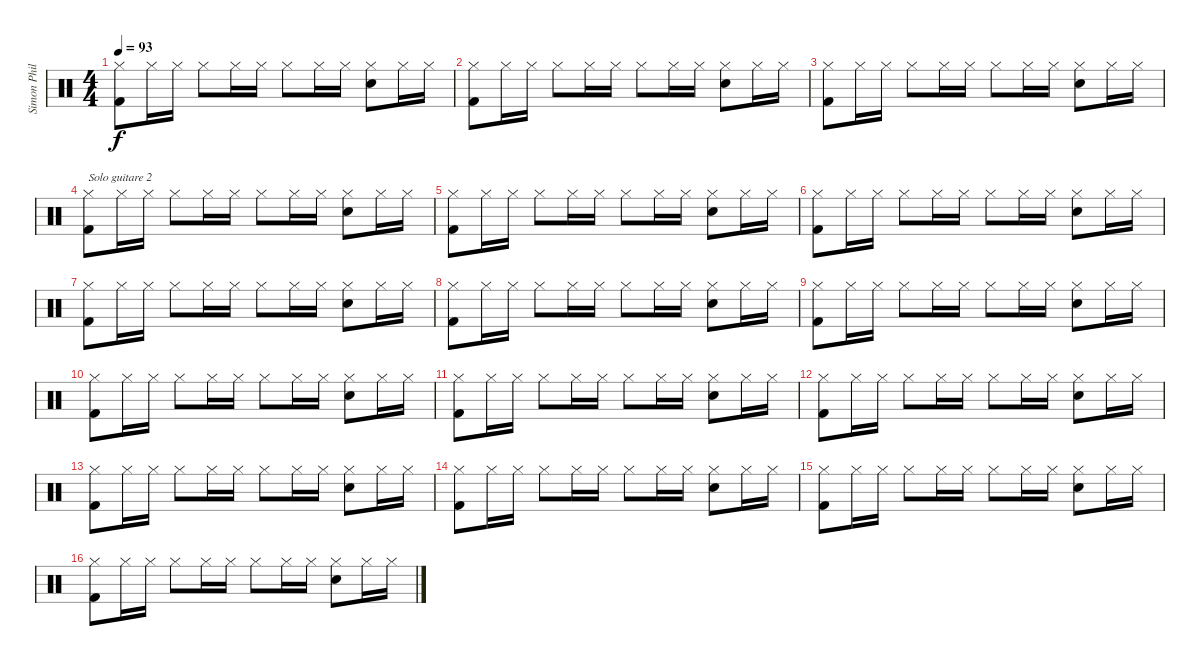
\track ("Simon Phillips" "Simon Phil") {instrument percussion}
\staff {score}
\articulation defaults
\ts (4 4)
\tempo 93
\clef neutral
\ks c
("Hi-Hat (closed)" "Kick (hit) 2").8{dy f} "Hi-Hat (closed)".16 "Hi-Hat (closed)".16 "Hi-Hat (closed)".8 "Hi-Hat (closed)".16 "Hi-Hat (closed)".16 "Hi-Hat (closed)".8 "Hi-Hat (closed)".16 "Hi-Hat (closed)".16 ("Electric Snare (hit)" "Hi-Hat (closed)").8 "Hi-Hat (closed)".16 "Hi-Hat (closed)".16 |
("Hi-Hat (closed)" "Kick (hit) 2").8 "Hi-Hat (closed)".16 "Hi-Hat (closed)".16 "Hi-Hat (closed)".8 "Hi-Hat (closed)".16 "Hi-Hat (closed)".16 "Hi-Hat (closed)".8 "Hi-Hat (closed)".16 "Hi-Hat (closed)".16 ("Electric Snare (hit)" "Hi-Hat (closed)").8 "Hi-Hat (closed)".16 "Hi-Hat (closed)".16 |
("Hi-Hat (closed)" "Kick (hit) 2").8 "Hi-Hat (closed)".16 "Hi-Hat (closed)".16 "Hi-Hat (closed)".8 "Hi-Hat (closed)".16 "Hi-Hat (closed)".16 "Hi-Hat (closed)".8 "Hi-Hat (closed)".16 "Hi-Hat (closed)".16 ("Electric Snare (hit)" "Hi-Hat (closed)").8 "Hi-Hat (closed)".16 "Hi-Hat (closed)".16 |
("Hi-Hat (closed)" "Kick (hit) 2").8{txt "Solo guitare 2"} "Hi-Hat (closed)".16 "Hi-Hat (closed)".16 "Hi-Hat (closed)".8 "Hi-Hat (closed)".16 "Hi-Hat (closed)".16 "Hi-Hat (closed)".8 "Hi-Hat (closed)".16 "Hi-Hat (closed)".16 ("Electric Snare (hit)" "Hi-Hat (closed)").8 "Hi-Hat (closed)".16 "Hi-Hat (closed)".16 |
("Hi-Hat (closed)" "Kick (hit) 2").8 "Hi-Hat (closed)".16 "Hi-Hat (closed)".16 "Hi-Hat (closed)".8 "Hi-Hat (closed)".16 "Hi-Hat (closed)".16 "Hi-Hat (closed)".8 "Hi-Hat (closed)".16 "Hi-Hat (closed)".16 ("Electric Snare (hit)" "Hi-Hat (closed)").8 "Hi-Hat (closed)".16 "Hi-Hat (closed)".16 |
("Hi-Hat (closed)" "Kick (hit) 2").8 "Hi-Hat (closed)".16 "Hi-Hat (closed)".16 "Hi-Hat (closed)".8 "Hi-Hat (closed)".16 "Hi-Hat (closed)".16 "Hi-Hat (closed)".8 "Hi-Hat (closed)".16 "Hi-Hat (closed)".16 ("Electric Snare (hit)" "Hi-Hat (closed)").8 "Hi-Hat (closed)".16 "Hi-Hat (closed)".16 |
("Hi-Hat (closed)" "Kick (hit) 2").8 "Hi-Hat (closed)".16 "Hi-Hat (closed)".16 "Hi-Hat (closed)".8 "Hi-Hat (closed)".16 "Hi-Hat (closed)".16 "Hi-Hat (closed)".8 "Hi-Hat (closed)".16 "Hi-Hat (closed)".16 ("Electric Snare (hit)" "Hi-Hat (closed)").8 "Hi-Hat (closed)".16 "Hi-Hat (closed)".16 |
("Hi-Hat (closed)" "Kick (hit) 2").8 "Hi-Hat (closed)".16 "Hi-Hat (closed)".16 "Hi-Hat (closed)".8 "Hi-Hat (closed)".16 "Hi-Hat (closed)".16 "Hi-Hat (closed)".8 "Hi-Hat (closed)".16 "Hi-Hat (closed)".16 ("Electric Snare (hit)" "Hi-Hat (closed)").8 "Hi-Hat (closed)".16 "Hi-Hat (closed)".16 |
("Hi-Hat (closed)" "Kick (hit) 2").8 "Hi-Hat (closed)".16 "Hi-Hat (closed)".16 "Hi-Hat (closed)".8 "Hi-Hat (closed)".16 "Hi-Hat (closed)".16 "Hi-Hat (closed)".8 "Hi-Hat (closed)".16 "Hi-Hat (closed)".16 ("Electric Snare (hit)" "Hi-Hat (closed)").8 "Hi-Hat (closed)".16 "Hi-Hat (closed)".16 |
("Hi-Hat (closed)" "Kick (hit) 2").8 "Hi-Hat (closed)".16 "Hi-Hat (closed)".16 "Hi-Hat (closed)".8 "Hi-Hat (closed)".16 "Hi-Hat (closed)".16 "Hi-Hat (closed)".8 "Hi-Hat (closed)".16 "Hi-Hat (closed)".16 ("Electric Snare (hit)" "Hi-Hat (closed)").8 "Hi-Hat (closed)".16 "Hi-Hat (closed)".16 |
("Hi-Hat (closed)" "Kick (hit) 2").8 "Hi-Hat (closed)".16 "Hi-Hat (closed)".16 "Hi-Hat (closed)".8 "Hi-Hat (closed)".16 "Hi-Hat (closed)".16 "Hi-Hat (closed)".8 "Hi-Hat (closed)".16 "Hi-Hat (closed)".16 ("Electric Snare (hit)" "Hi-Hat (closed)").8 "Hi-Hat (closed)".16 "Hi-Hat (closed)".16 |
("Hi-Hat (closed)" "Kick (hit) 2").8 "Hi-Hat (closed)".16 "Hi-Hat (closed)".16 "Hi-Hat (closed)".8 "Hi-Hat (closed)".16 "Hi-Hat (closed)".16 "Hi-Hat (closed)".8 "Hi-Hat (closed)".16 "Hi-Hat (closed)".16 ("Electric Snare (hit)" "Hi-Hat (closed)").8 "Hi-Hat (closed)".16 "Hi-Hat (closed)".16 |
("Hi-Hat (closed)" "Kick (hit) 2").8 "Hi-Hat (closed)".16 "Hi-Hat (closed)".16 "Hi-Hat (closed)".8 "Hi-Hat (closed)".16 "Hi-Hat (closed)".16 "Hi-Hat (closed)".8 "Hi-Hat (closed)".16 "Hi-Hat (closed)".16 ("Electric Snare (hit)" "Hi-Hat (closed)").8 "Hi-Hat (closed)".16 "Hi-Hat (closed)".16 |
("Hi-Hat (closed)" "Kick (hit) 2").8 "Hi-Hat (closed)".16 "Hi-Hat (closed)".16 "Hi-Hat (closed)".8 "Hi-Hat (closed)".16 "Hi-Hat (closed)".16 "Hi-Hat (closed)".8 "Hi-Hat (closed)".16 "Hi-Hat (closed)".16 ("Electric Snare (hit)" "Hi-Hat (closed)").8 "Hi-Hat (closed)".16 "Hi-Hat (closed)".16 |
("Hi-Hat (closed)" "Kick (hit) 2").8 "Hi-Hat (closed)".16 "Hi-Hat (closed)".16 "Hi-Hat (closed)".8 "Hi-Hat (closed)".16 "Hi-Hat (closed)".16 "Hi-Hat (closed)".8 "Hi-Hat (closed)".16 "Hi-Hat (closed)".16 ("Electric Snare (hit)" "Hi-Hat (closed)").8 "Hi-Hat (closed)".16 "Hi-Hat (closed)".16 |
("Hi-Hat (closed)" "Kick (hit) 2").8 "Hi-Hat (closed)".16 "Hi-Hat (closed)".16 "Hi-Hat (closed)".8 "Hi-Hat (closed)".16 "Hi-Hat (closed)".16 "Hi-Hat (closed)".8 "Hi-Hat (closed)".16 "Hi-Hat (closed)".16 ("Electric Snare (hit)" "Hi-Hat (closed)").8 "Hi-Hat (closed)".16 "Hi-Hat (closed)".16
